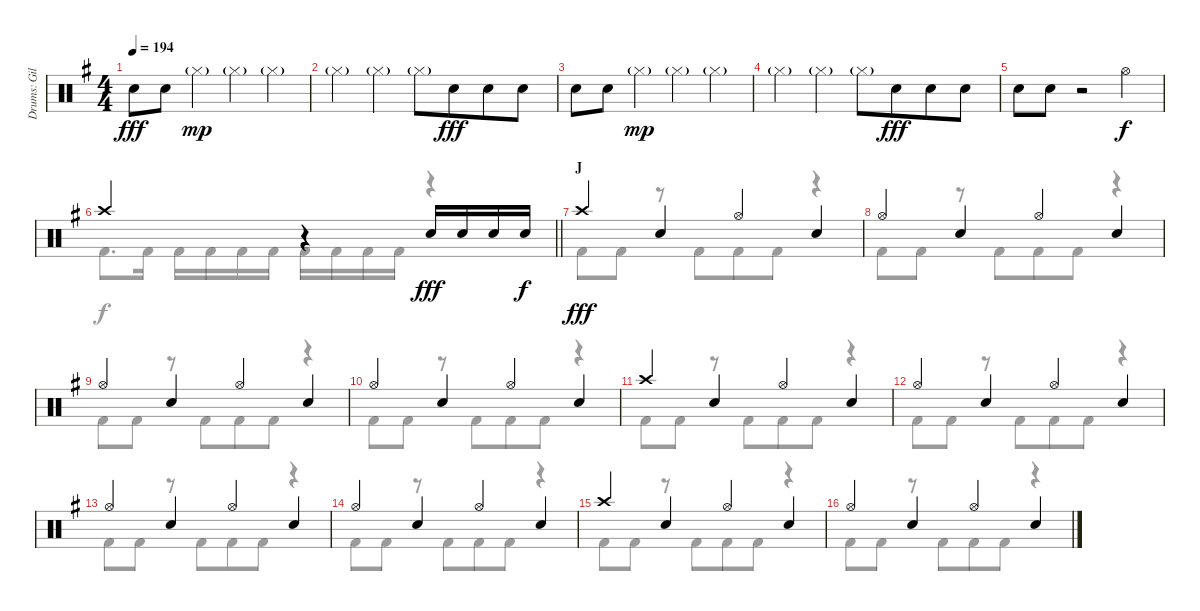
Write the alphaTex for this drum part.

\track ("Drums: Gil" "Drums: Gil") {instrument percussion}
\staff {score}
\articulation defaults
\voice
\ts (4 4)
\tempo 194
\clef neutral
\ks g "Snare (hit) 2".8{dy fff} "Snare (hit) 2".8{beam merge} "Hi-Hat (closed)"{g}.4{dy mp} "Hi-Hat (closed)"{g}.4 "Hi-Hat (closed)"{g}.4
|
"Hi-Hat (closed)"{g}.4 "Hi-Hat (closed)"{g}.4{beam merge} "Hi-Hat (closed)"{g}.8 "Snare (hit) 2".8{dy fff beam merge} "Snare (hit) 2".8 "Snare (hit) 2".8 |
"Snare (hit) 2".8 "Snare (hit) 2".8{beam merge} "Hi-Hat (closed)"{g}.4{dy mp} "Hi-Hat (closed)"{g}.4 "Hi-Hat (closed)"{g}.4 |
"Hi-Hat (closed)"{g}.4 "Hi-Hat (closed)"{g}.4{beam merge} "Hi-Hat (closed)"{g}.8 "Snare (hit) 2".8{dy fff beam merge} "Snare (hit) 2".8 "Snare (hit) 2".8 |
"Snare (hit) 2".8 "Snare (hit) 2".8 r.2 "Hi-Hat (open)".4{dy f} |
\barLineRight lightlight "Crash high (hit)".2
r.4 "Snare (hit) 2".16{dy fff} "Snare (hit) 2".16 "Snare (hit) 2".16 "Snare (hit) 2".16{dy f} |
\section ("" "J")
"Crash high (hit)".4{dy fff} "Snare (hit) 2".4 "Hi-Hat (open)".4 "Snare (hit) 2".4 |
"Hi-Hat (open)".4 "Snare (hit) 2".4 "Hi-Hat (open)".4 "Snare (hit) 2".4 |
"Hi-Hat (open)".4 "Snare (hit) 2".4 "Hi-Hat (open)".4 "Snare (hit) 2".4 |
"Hi-Hat (open)".4 "Snare (hit) 2".4 "Hi-Hat (open)".4 "Snare (hit) 2".4 |
"Crash high (hit)".4 "Snare (hit) 2".4 "Hi-Hat (open)".4 "Snare (hit) 2".4 |
"Hi-Hat (open)".4 "Snare (hit) 2".4 "Hi-Hat (open)".4 "Snare (hit) 2".4 |
"Hi-Hat (open)".4 "Snare (hit) 2".4 "Hi-Hat (open)".4 "Snare (hit) 2".4 |
"Hi-Hat (open)".4 "Snare (hit) 2".4 "Hi-Hat (open)".4 "Snare (hit) 2".4 |
"Crash high (hit)".4 "Snare (hit) 2".4 "Hi-Hat (open)".4 "Snare (hit) 2".4 |
"Hi-Hat (open)".4 "Snare (hit) 2".4 "Hi-Hat (open)".4 "Snare (hit) 2".4
\voice
\clef neutral
\ottava regular
\simile none
\ks g
|
|
|
|
|
\barLineRight lightlight "Kick (hit) 2".8{d dy f} "Kick (hit) 2".16 "Kick (hit) 2".16 "Kick (hit) 2".16 "Kick (hit) 2".16 "Kick (hit) 2".16 "Kick (hit) 2".16 "Kick (hit) 2".16 "Kick (hit) 2".16 "Kick (hit) 2".16
r.4 |
"Kick (hit) 2".8{dy fff} "Kick (hit) 2".8 r.8 "Kick (hit) 2".8{beam merge} "Kick (hit) 2".8 "Kick (hit) 2".8 r.4 |
"Kick (hit) 2".8 "Kick (hit) 2".8 r.8 "Kick (hit) 2".8{beam merge} "Kick (hit) 2".8 "Kick (hit) 2".8 r.4 |
"Kick (hit) 2".8 "Kick (hit) 2".8 r.8 "Kick (hit) 2".8{beam merge} "Kick (hit) 2".8 "Kick (hit) 2".8 r.4 |
"Kick (hit) 2".8 "Kick (hit) 2".8 r.8 "Kick (hit) 2".8{beam merge} "Kick (hit) 2".8 "Kick (hit) 2".8 r.4 |
"Kick (hit) 2".8 "Kick (hit) 2".8 r.8 "Kick (hit) 2".8{beam merge} "Kick (hit) 2".8 "Kick (hit) 2".8 r.4 |
"Kick (hit) 2".8 "Kick (hit) 2".8 r.8 "Kick (hit) 2".8{beam merge} "Kick (hit) 2".8 "Kick (hit) 2".8 r.4 |
"Kick (hit) 2".8 "Kick (hit) 2".8 r.8 "Kick (hit) 2".8{beam merge} "Kick (hit) 2".8 "Kick (hit) 2".8 r.4 |
"Kick (hit) 2".8 "Kick (hit) 2".8 r.8 "Kick (hit) 2".8{beam merge} "Kick (hit) 2".8 "Kick (hit) 2".8 r.4 |
"Kick (hit) 2".8 "Kick (hit) 2".8 r.8 "Kick (hit) 2".8{beam merge} "Kick (hit) 2".8 "Kick (hit) 2".8 r.4 |
"Kick (hit) 2".8 "Kick (hit) 2".8 r.8 "Kick (hit) 2".8{beam merge} "Kick (hit) 2".8 "Kick (hit) 2".8 r.4
